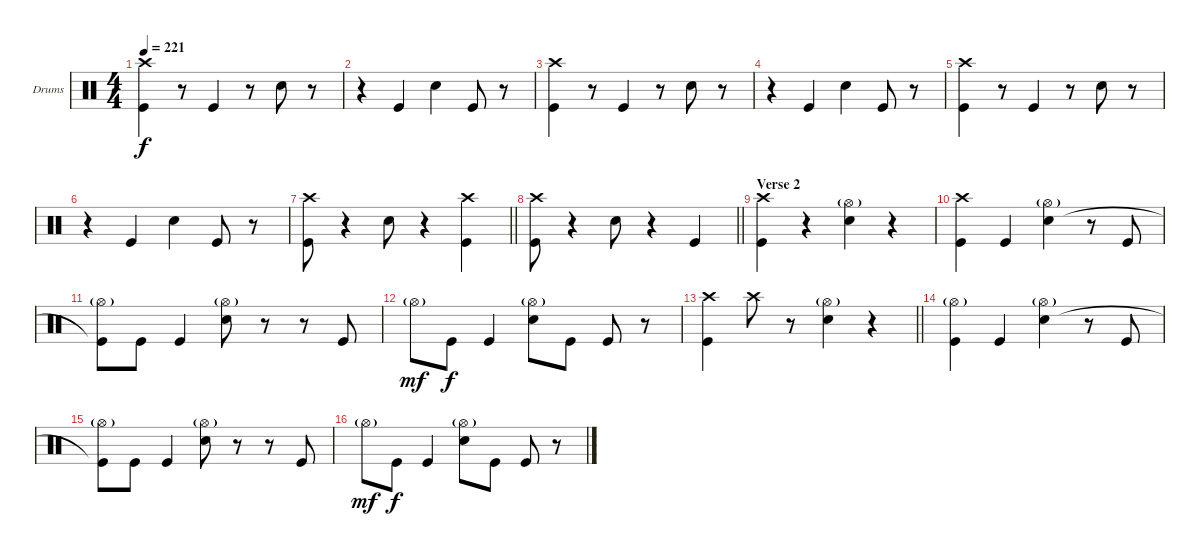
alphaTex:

\bracketExtendMode groupsimilarinstruments
\firstSystemTrackNameOrientation horizontal
\otherSystemsTrackNameOrientation horizontal
\track ("Drumkit" "Drums") {instrument percussion}
\staff {score}
\articulation defaults
\ts (4 4)
\tempo 221
\clef neutral
\ks c
("Crash high (hit)" "Kick (hit)").4{dy f} r.8 "Kick (hit)".4 r.8 "Snare (hit) 2".8 r.8 |
r.4 "Kick (hit)".4 "Snare (hit) 2".4 "Kick (hit)".8 r.8 |
("Crash high (hit)" "Kick (hit)").4 r.8 "Kick (hit)".4 r.8 "Snare (hit) 2".8 r.8 |
r.4 "Kick (hit)".4 "Snare (hit) 2".4 "Kick (hit)".8 r.8 |
("Crash high (hit)" "Kick (hit)").4 r.8 "Kick (hit)".4 r.8 "Snare (hit) 2".8 r.8 |
r.4 "Kick (hit)".4 "Snare (hit) 2".4 "Kick (hit)".8 r.8 |
\barLineRight lightlight
("Crash high (hit)" "Kick (hit)").8 r.4 "Snare (hit) 2".8 r.4 ("Crash high (hit)" "Kick (hit)").4 |
\barLineRight lightlight
("Crash high (hit)" "Kick (hit)").8 r.4 "Snare (hit) 2".8 r.4 "Kick (hit)".4 |
\section ("" "Verse 2")
("Crash high (hit)" "Kick (hit)").4 r.4 ("Hi-Hat (open)"{g} "Snare (hit) 2").4 r.4 |
("Crash high (hit)" "Kick (hit)").4 "Kick (hit)".4 ("Hi-Hat (open)"{g} "Snare (hit) 2").4 r.8 "Kick (hit)".8 |
("Hi-Hat (open)"{g} "Kick (hit)"{t}).8 "Kick (hit)".8 "Kick (hit)".4 ("Hi-Hat (open)"{g} "Snare (hit) 2").8 r.8 r.8 "Kick (hit)".8 |
"Hi-Hat (open)"{g}.8{dy mf} "Kick (hit)".8{dy f} "Kick (hit)".4 ("Hi-Hat (open)"{g} "Snare (hit) 2").8 "Kick (hit)".8 "Kick (hit)".8 r.8 |
\barLineRight lightlight
("Crash high (hit)" "Kick (hit)").4 "Crash high (hit)".8 r.8 ("Hi-Hat (open)"{g} "Snare (hit) 2").4 r.4 |
("Hi-Hat (open)"{g} "Kick (hit)").4 "Kick (hit)".4 ("Hi-Hat (open)"{g} "Snare (hit) 2").4 r.8 "Kick (hit)".8 |
("Hi-Hat (open)"{g} "Kick (hit)"{t}).8 "Kick (hit)".8 "Kick (hit)".4 ("Hi-Hat (open)"{g} "Snare (hit) 2").8 r.8 r.8 "Kick (hit)".8 |
"Hi-Hat (open)"{g}.8{dy mf} "Kick (hit)".8{dy f} "Kick (hit)".4 ("Hi-Hat (open)"{g} "Snare (hit) 2").8 "Kick (hit)".8 "Kick (hit)".8 r.8
